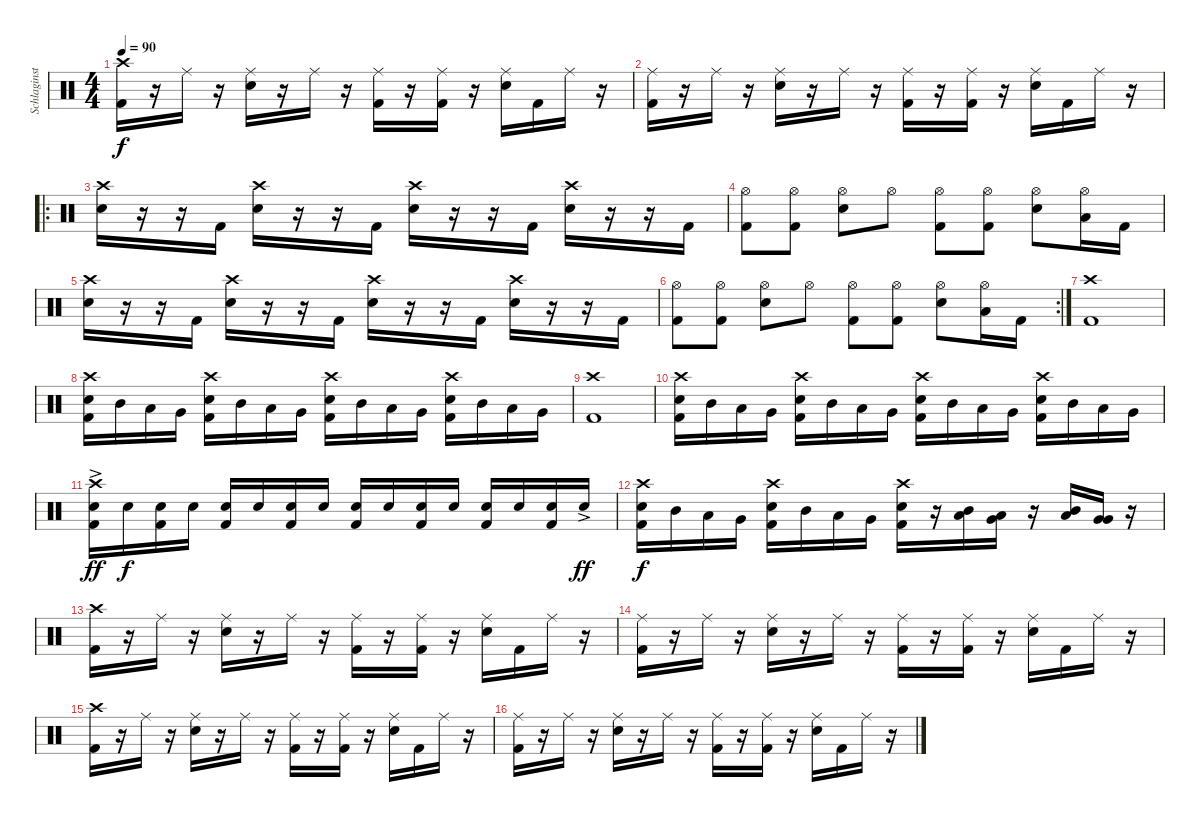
\track ("Schlaginstrumente - Auswahl" "Schlaginst") {instrument percussion}
\staff {score}
\articulation defaults
\ts (4 4)
\tempo 90
\clef neutral
\ks c
("Crash high (hit)" "Kick (hit) 2").16{dy f} r.16 "Ride (middle)".16 r.16 ("Ride (middle)" "Snare (hit) 2").16 r.16 "Ride (middle)".16 r.16 ("Ride (middle)" "Kick (hit) 2").16 r.16 ("Ride (middle)" "Kick (hit) 2").16 r.16 ("Ride (middle)" "Snare (hit) 2").16 "Kick (hit) 2".16 "Ride (middle)".16 r.16 |
("Ride (middle)" "Kick (hit) 2").16 r.16 "Ride (middle)".16 r.16 ("Ride (middle)" "Snare (hit) 2").16 r.16 "Ride (middle)".16 r.16 ("Ride (middle)" "Kick (hit) 2").16 r.16 ("Ride (middle)" "Kick (hit) 2").16 r.16 ("Ride (middle)" "Snare (hit) 2").16 "Kick (hit) 2".16 "Ride (middle)".16 r.16 |
\ro
("Crash high (hit)" "Snare (hit) 2").16 r.16 r.16 "Kick (hit) 2".16 ("Crash high (hit)" "Snare (hit) 2").16 r.16 r.16 "Kick (hit) 2".16 ("Crash high (hit)" "Snare (hit) 2").16 r.16 r.16 "Kick (hit) 2".16 ("Crash high (hit)" "Snare (hit) 2").16 r.16 r.16 "Kick (hit) 2".16 |
("Hi-Hat (open)" "Kick (hit) 2").8 ("Hi-Hat (open)" "Kick (hit) 2").8 ("Hi-Hat (open)" "Snare (hit) 2").8 "Hi-Hat (open)".8 ("Hi-Hat (open)" "Kick (hit) 2").8 ("Hi-Hat (open)" "Kick (hit) 2").8 ("Hi-Hat (open)" "Snare (hit) 2").8 ("Hi-Hat (open)" "Low Tom (hit)").16 "Kick (hit) 2".16 |
("Crash high (hit)" "Snare (hit) 2").16 r.16 r.16 "Kick (hit) 2".16 ("Crash high (hit)" "Snare (hit) 2").16 r.16 r.16 "Kick (hit) 2".16 ("Crash high (hit)" "Snare (hit) 2").16 r.16 r.16 "Kick (hit) 2".16 ("Crash high (hit)" "Snare (hit) 2").16 r.16 r.16 "Kick (hit) 2".16 |
\rc 2
("Hi-Hat (open)" "Kick (hit) 2").8 ("Hi-Hat (open)" "Kick (hit) 2").8 ("Hi-Hat (open)" "Snare (hit) 2").8 "Hi-Hat (open)".8 ("Hi-Hat (open)" "Kick (hit) 2").8 ("Hi-Hat (open)" "Kick (hit) 2").8 ("Hi-Hat (open)" "Snare (hit) 2").8 ("Hi-Hat (open)" "Low Tom (hit)").16 "Kick (hit) 2".16 |
("Crash high (hit)" "Kick (hit) 2").1 |
("Crash high (hit)" "Snare (hit) 2" "Kick (hit) 2").16 "Mid Tom (hit)".16 "Low Tom (hit)".16 "Very Low Tom (hit)".16 ("Crash high (hit)" "Snare (hit) 2" "Kick (hit) 2").16 "Mid Tom (hit)".16 "Low Tom (hit)".16 "Very Low Tom (hit)".16 ("Crash high (hit)" "Snare (hit) 2" "Kick (hit) 2").16 "Mid Tom (hit)".16 "Low Tom (hit)".16 "Very Low Tom (hit)".16 ("Crash high (hit)" "Snare (hit) 2" "Kick (hit) 2").16 "Mid Tom (hit)".16 "Low Tom (hit)".16 "Very Low Tom (hit)".16 |
("Crash high (hit)" "Kick (hit) 2").1 |
("Crash high (hit)" "Snare (hit) 2" "Kick (hit) 2").16 "Mid Tom (hit)".16 "Low Tom (hit)".16 "Very Low Tom (hit)".16 ("Crash high (hit)" "Snare (hit) 2" "Kick (hit) 2").16 "Mid Tom (hit)".16 "Low Tom (hit)".16 "Very Low Tom (hit)".16 ("Crash high (hit)" "Snare (hit) 2" "Kick (hit) 2").16 "Mid Tom (hit)".16 "Low Tom (hit)".16 "Very Low Tom (hit)".16 ("Crash high (hit)" "Snare (hit) 2" "Kick (hit) 2").16 "Mid Tom (hit)".16 "Low Tom (hit)".16 "Very Low Tom (hit)".16 |
("Crash high (hit)" "Snare (hit) 2"{ac} "Kick (hit) 2").16{dy ff} "Snare (hit) 2".16{dy f} ("Snare (hit) 2" "Kick (hit) 2").16 "Snare (hit) 2".16 ("Snare (hit) 2" "Kick (hit) 2").16 "Snare (hit) 2".16 ("Snare (hit) 2" "Kick (hit) 2").16 "Snare (hit) 2".16 ("Snare (hit) 2" "Kick (hit) 2").16 "Snare (hit) 2".16 ("Snare (hit) 2" "Kick (hit) 2").16 "Snare (hit) 2".16 ("Snare (hit) 2" "Kick (hit) 2").16 "Snare (hit) 2".16 ("Snare (hit) 2" "Kick (hit) 2").16 "Snare (hit) 2"{ac}.16{dy ff} |
("Crash high (hit)" "Snare (hit) 2" "Kick (hit) 2").16{dy f} "Mid Tom (hit)".16 "Low Tom (hit)".16 "Very Low Tom (hit)".16 ("Crash high (hit)" "Snare (hit) 2" "Kick (hit) 2").16 "Mid Tom (hit)".16 "Low Tom (hit)".16 "Very Low Tom (hit)".16 ("Crash high (hit)" "Snare (hit) 2" "Kick (hit) 2").16 r.16 ("Low Tom (hit)" "Mid Tom (hit)").16 ("Very Low Tom (hit)" "Low Tom (hit)").16 r.16 ("Mid Tom (hit)" "Low Tom (hit)").16 ("Very Low Tom (hit)" "Very Low Tom (hit)").16 r.16 |
("Crash high (hit)" "Kick (hit) 2").16 r.16 "Ride (middle)".16 r.16 ("Ride (middle)" "Snare (hit) 2").16 r.16 "Ride (middle)".16 r.16 ("Ride (middle)" "Kick (hit) 2").16 r.16 ("Ride (middle)" "Kick (hit) 2").16 r.16 ("Ride (middle)" "Snare (hit) 2").16 "Kick (hit) 2".16 "Ride (middle)".16 r.16 |
("Ride (middle)" "Kick (hit) 2").16 r.16 "Ride (middle)".16 r.16 ("Ride (middle)" "Snare (hit) 2").16 r.16 "Ride (middle)".16 r.16 ("Ride (middle)" "Kick (hit) 2").16 r.16 ("Ride (middle)" "Kick (hit) 2").16 r.16 ("Ride (middle)" "Snare (hit) 2").16 "Kick (hit) 2".16 "Ride (middle)".16 r.16 |
("Crash high (hit)" "Kick (hit) 2").16 r.16 "Ride (middle)".16 r.16 ("Ride (middle)" "Snare (hit) 2").16 r.16 "Ride (middle)".16 r.16 ("Ride (middle)" "Kick (hit) 2").16 r.16 ("Ride (middle)" "Kick (hit) 2").16 r.16 ("Ride (middle)" "Snare (hit) 2").16 "Kick (hit) 2".16 "Ride (middle)".16 r.16 |
("Ride (middle)" "Kick (hit) 2").16 r.16 "Ride (middle)".16 r.16 ("Ride (middle)" "Snare (hit) 2").16 r.16 "Ride (middle)".16 r.16 ("Ride (middle)" "Kick (hit) 2").16 r.16 ("Ride (middle)" "Kick (hit) 2").16 r.16 ("Ride (middle)" "Snare (hit) 2").16 "Kick (hit) 2".16 "Ride (middle)".16 r.16
